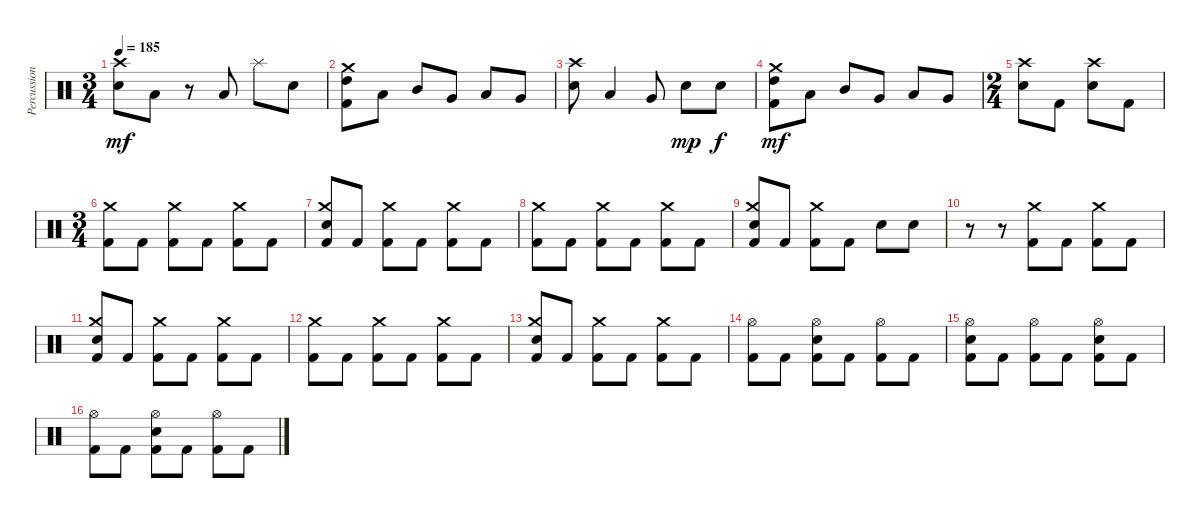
\track ("Percussion" "Percussion") {instrument percussion}
\staff {score}
\articulation defaults
\ts (3 4)
\tempo 185
\clef neutral
\ks c
("Crash high (hit)" "Electric Snare (hit)").8{dy mf} "Low Floor Tom (hit)".8 r.8 "Low Tom (hit)".8 "Splash (hit)".8 "Electric Snare (hit)".8 |
("Crash medium (hit)" "High Tom (hit)" "Kick (hit) 2").8 "Low Tom (hit)".8 "Mid Tom (hit)".8 "Very Low Tom (hit)".8 "Low Tom (hit)".8 "Very Low Tom (hit)".8 |
("Crash high (hit)" "Electric Snare (hit)").8 "Low Floor Tom (hit)".4 "Very Low Tom (hit)".8 "Electric Snare (hit)".8{dy mp} "Electric Snare (hit)".8{dy f} |
("Crash medium (hit)" "High Tom (hit)" "Kick (hit) 2").8{dy mf} "Low Tom (hit)".8 "Mid Tom (hit)".8 "Very Low Tom (hit)".8 "Low Tom (hit)".8 "Very Low Tom (hit)".8 |
\ts (2 4)
("Crash high (hit)" "Electric Snare (hit)").8 "Kick (hit) 2".8 ("Crash high (hit)" "Electric Snare (hit)").8 "Kick (hit) 2".8 |
\ts (3 4)
("Crash medium (hit)" "Kick (hit) 2").8 "Kick (hit) 2".8 ("Crash medium (hit)" "Kick (hit) 2").8 "Kick (hit) 2".8 ("Crash medium (hit)" "Kick (hit) 2").8 "Kick (hit) 2".8 |
("Crash medium (hit)" "Electric Snare (hit)" "Kick (hit) 2").8 "Kick (hit) 2".8 ("Crash medium (hit)" "Kick (hit) 2").8 "Kick (hit) 2".8 ("Crash medium (hit)" "Kick (hit) 2").8 "Kick (hit) 2".8 |
("Crash medium (hit)" "Kick (hit) 2").8 "Kick (hit) 2".8 ("Crash medium (hit)" "Kick (hit) 2").8 "Kick (hit) 2".8 ("Crash medium (hit)" "Kick (hit) 2").8 "Kick (hit) 2".8 |
("Crash medium (hit)" "Electric Snare (hit)" "Kick (hit) 2").8 "Kick (hit) 2".8 ("Crash medium (hit)" "Kick (hit) 2").8 "Kick (hit) 2".8 "Electric Snare (hit)".8 "Electric Snare (hit)".8 |
r.8 r.8 ("Crash medium (hit)" "Kick (hit) 2").8 "Kick (hit) 2".8 ("Crash medium (hit)" "Kick (hit) 2").8 "Kick (hit) 2".8 |
("Crash medium (hit)" "Electric Snare (hit)" "Kick (hit) 2").8 "Kick (hit) 2".8 ("Crash medium (hit)" "Kick (hit) 2").8 "Kick (hit) 2".8 ("Crash medium (hit)" "Kick (hit) 2").8 "Kick (hit) 2".8 |
("Crash medium (hit)" "Kick (hit) 2").8 "Kick (hit) 2".8 ("Crash medium (hit)" "Kick (hit) 2").8 "Kick (hit) 2".8 ("Crash medium (hit)" "Kick (hit) 2").8 "Kick (hit) 2".8 |
("Crash medium (hit)" "Electric Snare (hit)" "Kick (hit) 2").8 "Kick (hit) 2".8 ("Crash medium (hit)" "Kick (hit) 2").8 "Kick (hit) 2".8 ("Crash medium (hit)" "Kick (hit) 2").8 "Kick (hit) 2".8 |
("Hi-Hat (open)" "Kick (hit) 2").8 "Kick (hit) 2".8 ("Hi-Hat (open)" "Electric Snare (hit)" "Kick (hit) 2").8 "Kick (hit) 2".8 ("Hi-Hat (open)" "Kick (hit) 2").8 "Kick (hit) 2".8 |
("Hi-Hat (open)" "Electric Snare (hit)" "Kick (hit) 2").8 "Kick (hit) 2".8 ("Hi-Hat (open)" "Kick (hit) 2").8 "Kick (hit) 2".8 ("Hi-Hat (open)" "Electric Snare (hit)" "Kick (hit) 2").8 "Kick (hit) 2".8 |
("Hi-Hat (open)" "Kick (hit) 2").8 "Kick (hit) 2".8 ("Hi-Hat (open)" "Electric Snare (hit)" "Kick (hit) 2").8 "Kick (hit) 2".8 ("Hi-Hat (open)" "Kick (hit) 2").8 "Kick (hit) 2".8
